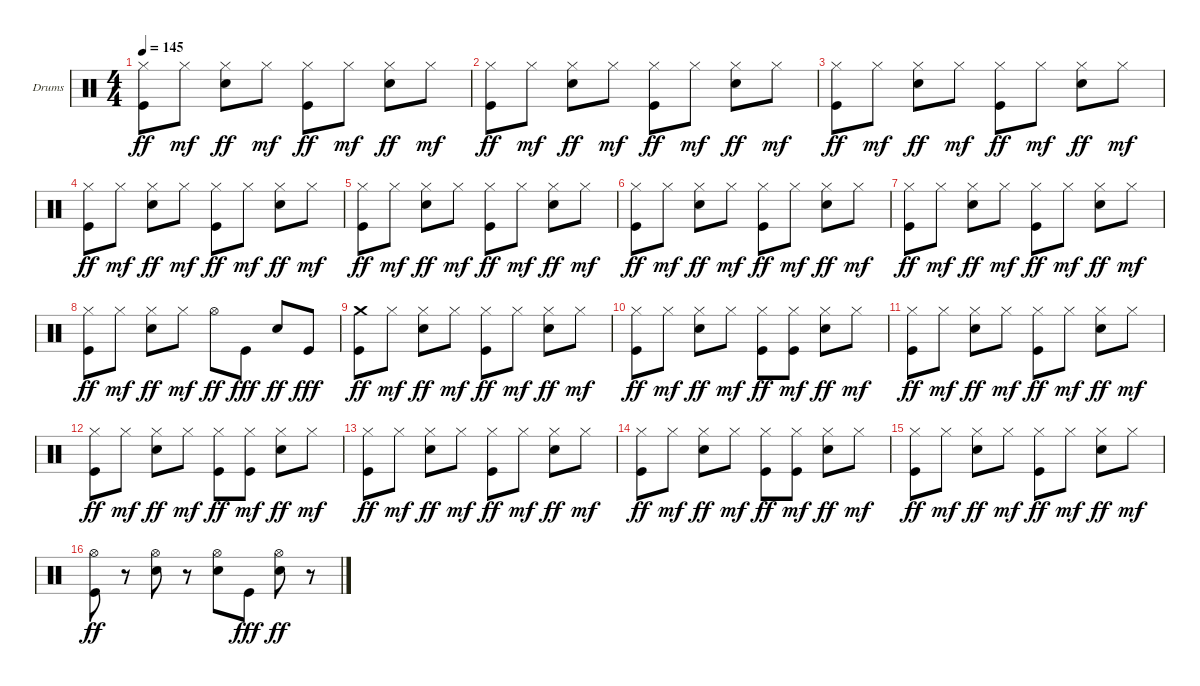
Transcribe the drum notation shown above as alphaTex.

\defaultSystemsLayout 4
\bracketExtendMode groupsimilarinstruments
\firstSystemTrackNameOrientation horizontal
\otherSystemsTrackNameOrientation horizontal
\track ("Drumkit" "Drums") {instrument percussion}
\staff {score}
\articulation defaults
\ts (4 4)
\tempo 145
\clef neutral
\scale
0.333333
\ks c
("Hi-Hat (closed)" "Kick (hit)").8{dy ff} "Hi-Hat (closed)".8{dy mf} ("Hi-Hat (closed)" "Snare (hit) 2").8{dy ff} "Hi-Hat (closed)".8{dy mf} ("Hi-Hat (closed)" "Kick (hit)").8{dy ff} "Hi-Hat (closed)".8{dy mf} ("Hi-Hat (closed)" "Snare (hit) 2").8{dy ff} "Hi-Hat (closed)".8{dy mf} |
\scale
0.333333 ("Hi-Hat (closed)" "Kick (hit)").8{dy ff} "Hi-Hat (closed)".8{dy mf} ("Hi-Hat (closed)" "Snare (hit) 2").8{dy ff} "Hi-Hat (closed)".8{dy mf} ("Hi-Hat (closed)" "Kick (hit)").8{dy ff} "Hi-Hat (closed)".8{dy mf} ("Hi-Hat (closed)" "Snare (hit) 2").8{dy ff} "Hi-Hat (closed)".8{dy mf} |
\scale
0.333333 ("Hi-Hat (closed)" "Kick (hit)").8{dy ff} "Hi-Hat (closed)".8{dy mf} ("Hi-Hat (closed)" "Snare (hit) 2").8{dy ff} "Hi-Hat (closed)".8{dy mf} ("Hi-Hat (closed)" "Kick (hit)").8{dy ff} "Hi-Hat (closed)".8{dy mf} ("Hi-Hat (closed)" "Snare (hit) 2").8{dy ff} "Hi-Hat (closed)".8{dy mf} |
\scale
0.333333 ("Hi-Hat (closed)" "Kick (hit)").8{dy ff} "Hi-Hat (closed)".8{dy mf} ("Hi-Hat (closed)" "Snare (hit) 2").8{dy ff} "Hi-Hat (closed)".8{dy mf} ("Hi-Hat (closed)" "Kick (hit)").8{dy ff} "Hi-Hat (closed)".8{dy mf} ("Hi-Hat (closed)" "Snare (hit) 2").8{dy ff} "Hi-Hat (closed)".8{dy mf} |
\scale
0.333333 ("Hi-Hat (closed)" "Kick (hit)").8{dy ff} "Hi-Hat (closed)".8{dy mf} ("Hi-Hat (closed)" "Snare (hit) 2").8{dy ff} "Hi-Hat (closed)".8{dy mf} ("Hi-Hat (closed)" "Kick (hit)").8{dy ff} "Hi-Hat (closed)".8{dy mf} ("Hi-Hat (closed)" "Snare (hit) 2").8{dy ff} "Hi-Hat (closed)".8{dy mf} |
\scale
0.333333 ("Hi-Hat (closed)" "Kick (hit)").8{dy ff} "Hi-Hat (closed)".8{dy mf} ("Hi-Hat (closed)" "Snare (hit) 2").8{dy ff} "Hi-Hat (closed)".8{dy mf} ("Hi-Hat (closed)" "Kick (hit)").8{dy ff} "Hi-Hat (closed)".8{dy mf} ("Hi-Hat (closed)" "Snare (hit) 2").8{dy ff} "Hi-Hat (closed)".8{dy mf} |
\scale
0.333333 ("Hi-Hat (closed)" "Kick (hit)").8{dy ff} "Hi-Hat (closed)".8{dy mf} ("Hi-Hat (closed)" "Snare (hit) 2").8{dy ff} "Hi-Hat (closed)".8{dy mf} ("Hi-Hat (closed)" "Kick (hit)").8{dy ff} "Hi-Hat (closed)".8{dy mf} ("Hi-Hat (closed)" "Snare (hit) 2").8{dy ff} "Hi-Hat (closed)".8{dy mf} |
\scale
0.333333 ("Hi-Hat (closed)" "Kick (hit)").8{dy ff} "Hi-Hat (closed)".8{dy mf} ("Hi-Hat (closed)" "Snare (hit) 2").8{dy ff} "Hi-Hat (closed)".8{dy mf} "Hi-Hat (open)".8{dy ff} "Kick (hit)".8{dy fff} "Snare (hit) 2".8{dy ff} "Kick (hit)".8{dy fff} |
\scale
0.333333 ("Crash medium (hit)" "Kick (hit)").8{dy ff} "Hi-Hat (closed)".8{dy mf} ("Hi-Hat (closed)" "Snare (hit) 2").8{dy ff} "Hi-Hat (closed)".8{dy mf} ("Hi-Hat (closed)" "Kick (hit)").8{dy ff} "Hi-Hat (closed)".8{dy mf} ("Hi-Hat (closed)" "Snare (hit) 2").8{dy ff} "Hi-Hat (closed)".8{dy mf} |
\scale
0.333333 ("Hi-Hat (closed)" "Kick (hit)").8{dy ff} "Hi-Hat (closed)".8{dy mf} ("Hi-Hat (closed)" "Snare (hit) 2").8{dy ff} "Hi-Hat (closed)".8{dy mf} ("Hi-Hat (closed)" "Kick (hit)").8{dy ff} ("Hi-Hat (closed)" "Kick (hit)").8{dy mf} ("Hi-Hat (closed)" "Snare (hit) 2").8{dy ff} "Hi-Hat (closed)".8{dy mf} |
\scale
0.333333 ("Hi-Hat (closed)" "Kick (hit)").8{dy ff} "Hi-Hat (closed)".8{dy mf} ("Hi-Hat (closed)" "Snare (hit) 2").8{dy ff} "Hi-Hat (closed)".8{dy mf} ("Hi-Hat (closed)" "Kick (hit)").8{dy ff} "Hi-Hat (closed)".8{dy mf} ("Hi-Hat (closed)" "Snare (hit) 2").8{dy ff} "Hi-Hat (closed)".8{dy mf} |
\scale
0.333333 ("Hi-Hat (closed)" "Kick (hit)").8{dy ff} "Hi-Hat (closed)".8{dy mf} ("Hi-Hat (closed)" "Snare (hit) 2").8{dy ff} "Hi-Hat (closed)".8{dy mf} ("Hi-Hat (closed)" "Kick (hit)").8{dy ff} ("Hi-Hat (closed)" "Kick (hit)").8{dy mf} ("Hi-Hat (closed)" "Snare (hit) 2").8{dy ff} "Hi-Hat (closed)".8{dy mf} |
\scale
0.333333 ("Hi-Hat (closed)" "Kick (hit)").8{dy ff} "Hi-Hat (closed)".8{dy mf} ("Hi-Hat (closed)" "Snare (hit) 2").8{dy ff} "Hi-Hat (closed)".8{dy mf} ("Hi-Hat (closed)" "Kick (hit)").8{dy ff} "Hi-Hat (closed)".8{dy mf} ("Hi-Hat (closed)" "Snare (hit) 2").8{dy ff} "Hi-Hat (closed)".8{dy mf} |
\scale
0.333333 ("Hi-Hat (closed)" "Kick (hit)").8{dy ff} "Hi-Hat (closed)".8{dy mf} ("Hi-Hat (closed)" "Snare (hit) 2").8{dy ff} "Hi-Hat (closed)".8{dy mf} ("Hi-Hat (closed)" "Kick (hit)").8{dy ff} ("Hi-Hat (closed)" "Kick (hit)").8{dy mf} ("Hi-Hat (closed)" "Snare (hit) 2").8{dy ff} "Hi-Hat (closed)".8{dy mf} |
\scale
0.333333 ("Hi-Hat (closed)" "Kick (hit)").8{dy ff} "Hi-Hat (closed)".8{dy mf} ("Hi-Hat (closed)" "Snare (hit) 2").8{dy ff} "Hi-Hat (closed)".8{dy mf} ("Hi-Hat (closed)" "Kick (hit)").8{dy ff} "Hi-Hat (closed)".8{dy mf} ("Hi-Hat (closed)" "Snare (hit) 2").8{dy ff} "Hi-Hat (closed)".8{dy mf} |
\scale
0.333333 ("Hi-Hat (open)" "Kick (hit)").8{dy ff} r.8 ("Hi-Hat (open)" "Snare (hit) 2").8 r.8 ("Hi-Hat (open)" "Snare (hit) 2").8 "Kick (hit)".8{dy fff} ("Hi-Hat (open)" "Snare (hit) 2").8{dy ff} r.8
